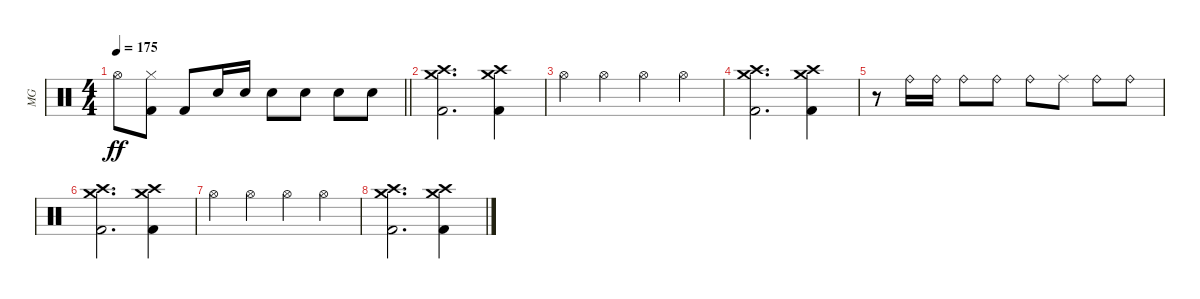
\track ("MG" "MG") {instrument percussion}
\staff {score}
\articulation defaults
\ts (4 4)
\tempo 175
\clef neutral
\barLineRight lightlight
\ks c "Hi-Hat (open)".8{dy ff}
("Hi-Hat (closed)" "Kick (hit) 2").8 "Kick (hit) 2".8 "Electric Snare (hit)".16 "Electric Snare (hit)".16 "Electric Snare (hit)".8 "Electric Snare (hit)".8 "Electric Snare (hit)".8 "Electric Snare (hit)".8 |
\section ("" "")
("Crash high (hit)" "Crash medium (hit)" "Kick (hit) 2").2{d} ("Crash high (hit)" "Crash medium (hit)" "Kick (hit) 2").4 |
"Hi-Hat (open)".4 "Hi-Hat (open)".4 "Hi-Hat (open)".4 "Hi-Hat (open)".4 |
("Crash high (hit)" "Crash medium (hit)" "Kick (hit) 2").2{d} ("Crash high (hit)" "Crash medium (hit)" "Kick (hit) 2").4 |
r.8 "Ride (bell)".16 "Ride (bell)".16 "Ride (bell)".8 "Ride (bell)".8 "Ride (bell)".8 "Ride (middle)".8 "Ride (bell)".8 "Ride (bell)".8 |
("Crash high (hit)" "Crash medium (hit)" "Kick (hit) 2").2{d} ("Crash high (hit)" "Crash medium (hit)" "Kick (hit) 2").4 |
"Hi-Hat (open)".4 "Hi-Hat (open)".4 "Hi-Hat (open)".4 "Hi-Hat (open)".4 |
("Crash high (hit)" "Crash medium (hit)" "Kick (hit) 2").2{d} ("Crash high (hit)" "Crash medium (hit)" "Kick (hit) 2").4
